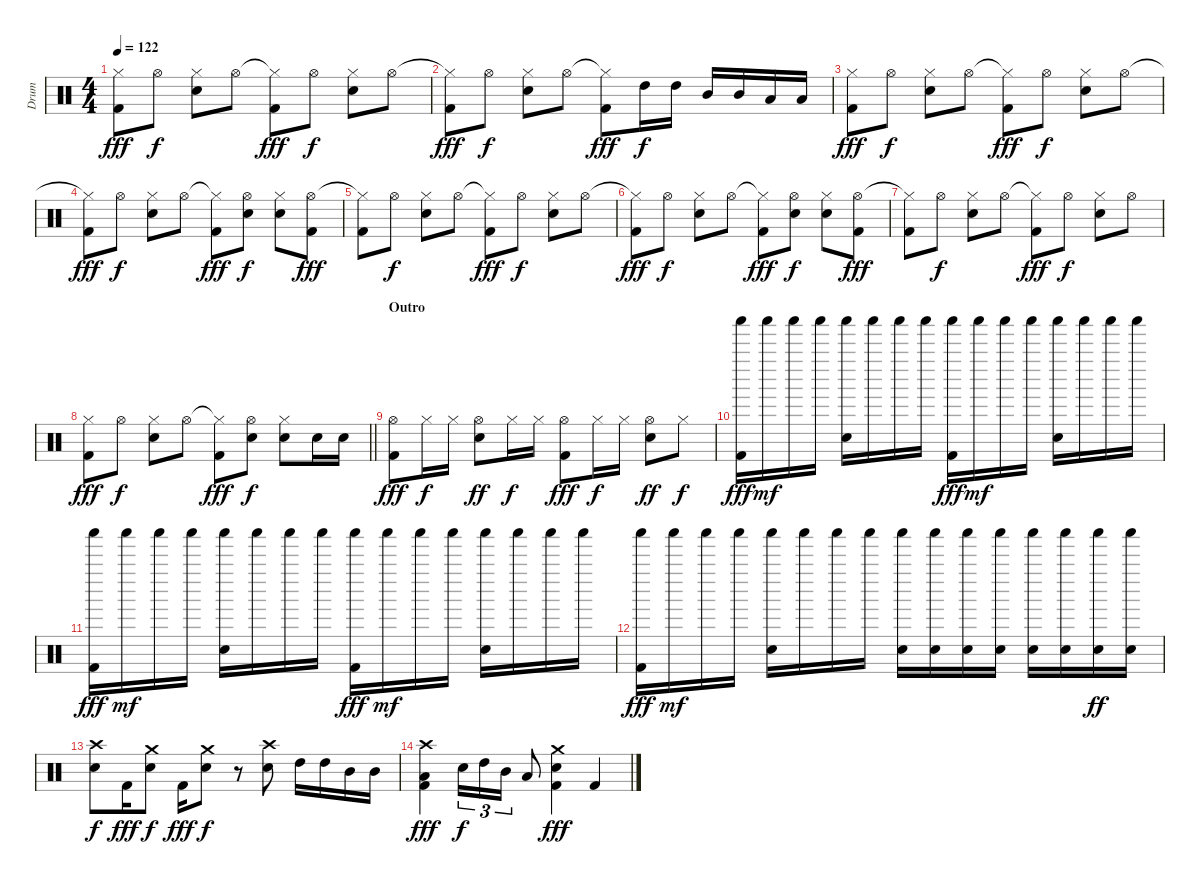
\track ("Drum" "Drum") {instrument percussion}
\staff {score}
\articulation defaults
\ts (4 4)
\tempo 122
\clef neutral
\ks c
("Hi-Hat (closed)"{t} "Kick (hit) 2").8{dy fff} "Hi-Hat (open)".8{dy f} ("Hi-Hat (closed)" "Electric Snare (hit)").8 "Hi-Hat (open)".8 ("Hi-Hat (closed)"{t} "Kick (hit) 2").8{dy fff} "Hi-Hat (open)".8{dy f} ("Hi-Hat (closed)" "Electric Snare (hit)").8 "Hi-Hat (open)".8 |
("Hi-Hat (closed)"{t} "Kick (hit) 2").8{dy fff} "Hi-Hat (open)".8{dy f} ("Hi-Hat (closed)" "Electric Snare (hit)").8 "Hi-Hat (open)".8 ("Hi-Hat (closed)"{t} "Kick (hit) 2").8{dy fff} "High Tom (hit)".16{dy f} "High Tom (hit)".16 "Mid Tom (hit)".16 "Mid Tom (hit)".16 "Low Tom (hit)".16 "Low Tom (hit)".16 |
("Hi-Hat (closed)" "Kick (hit) 2").8{dy fff} "Hi-Hat (open)".8{dy f} ("Hi-Hat (closed)" "Electric Snare (hit)").8 "Hi-Hat (open)".8 ("Hi-Hat (closed)"{t} "Kick (hit) 2").8{dy fff} "Hi-Hat (open)".8{dy f} ("Hi-Hat (closed)" "Electric Snare (hit)").8 "Hi-Hat (open)".8 |
("Hi-Hat (closed)"{t} "Kick (hit) 2").8{dy fff} "Hi-Hat (open)".8{dy f} ("Hi-Hat (closed)" "Electric Snare (hit)").8 "Hi-Hat (open)".8 ("Hi-Hat (closed)"{t} "Kick (hit) 2").8{dy fff} ("Hi-Hat (open)" "Hand Clap (hit)").8{dy f} ("Hi-Hat (closed)" "Hand Clap (hit)").8 ("Hi-Hat (open)" "Kick (hit) 2").8{dy fff} |
("Hi-Hat (closed)"{t} "Kick (hit) 2").8 "Hi-Hat (open)".8{dy f} ("Hi-Hat (closed)" "Electric Snare (hit)").8 "Hi-Hat (open)".8 ("Hi-Hat (closed)"{t} "Kick (hit) 2").8{dy fff} "Hi-Hat (open)".8{dy f} ("Hi-Hat (closed)" "Electric Snare (hit)").8 "Hi-Hat (open)".8 |
("Hi-Hat (closed)"{t} "Kick (hit) 2").8{dy fff} "Hi-Hat (open)".8{dy f} ("Hi-Hat (closed)" "Electric Snare (hit)").8 "Hi-Hat (open)".8 ("Hi-Hat (closed)"{t} "Kick (hit) 2").8{dy fff} ("Hi-Hat (open)" "Hand Clap (hit)").8{dy f} ("Hi-Hat (closed)" "Hand Clap (hit)").8 ("Hi-Hat (open)" "Kick (hit) 2").8{dy fff} |
("Hi-Hat (closed)"{t} "Kick (hit) 2").8 "Hi-Hat (open)".8{dy f} ("Hi-Hat (closed)" "Electric Snare (hit)").8 "Hi-Hat (open)".8 ("Hi-Hat (closed)"{t} "Kick (hit) 2").8{dy fff} "Hi-Hat (open)".8{dy f} ("Hi-Hat (closed)" "Electric Snare (hit)").8 "Hi-Hat (open)".8 |
\barLineRight lightlight
("Hi-Hat (closed)" "Kick (hit) 2").8{dy fff} "Hi-Hat (open)".8{dy f} ("Hi-Hat (closed)" "Electric Snare (hit)").8 "Hi-Hat (open)".8 ("Hi-Hat (closed)"{t} "Kick (hit) 2").8{dy fff} ("Hi-Hat (open)" "Hand Clap (hit)").8{dy f} ("Hi-Hat (closed)" "Hand Clap (hit)").8 "Electric Snare (hit)".16 "Electric Snare (hit)".16 |
\section ("" "Outro")
("Hi-Hat (open)" "Kick (hit) 2").8{dy fff} "Hi-Hat (closed)".16{dy f} "Hi-Hat (closed)".16 ("Hi-Hat (open)" "Electric Snare (hit)").8{dy ff} "Hi-Hat (closed)".16{dy f} "Hi-Hat (closed)".16 ("Hi-Hat (open)" "Kick (hit) 2").8{dy fff} "Hi-Hat (closed)".16{dy f} "Hi-Hat (closed)".16 ("Hi-Hat (open)" "Electric Snare (hit)").8{dy ff} "Hi-Hat (closed)".8{dy f} |
("Shaker (hit)" "Kick (hit) 2").16{dy fff} "Shaker (hit)".16{dy mf} "Shaker (hit)".16 "Shaker (hit)".16 ("Shaker (hit)" "Electric Snare (hit)").16 "Shaker (hit)".16 "Shaker (hit)".16 "Shaker (hit)".16 ("Shaker (hit)" "Kick (hit) 2").16{dy fff} "Shaker (hit)".16{dy mf} "Shaker (hit)".16 "Shaker (hit)".16 ("Shaker (hit)" "Electric Snare (hit)").16 "Shaker (hit)".16 "Shaker (hit)".16 "Shaker (hit)".16 |
("Shaker (hit)" "Kick (hit) 2").16{dy fff} "Shaker (hit)".16{dy mf} "Shaker (hit)".16 "Shaker (hit)".16 ("Shaker (hit)" "Electric Snare (hit)").16 "Shaker (hit)".16 "Shaker (hit)".16 "Shaker (hit)".16 ("Shaker (hit)" "Kick (hit) 2").16{dy fff} "Shaker (hit)".16{dy mf} "Shaker (hit)".16 "Shaker (hit)".16 ("Shaker (hit)" "Electric Snare (hit)").16 "Shaker (hit)".16 "Shaker (hit)".16 "Shaker (hit)".16 |
("Shaker (hit)" "Kick (hit) 2").16{dy fff} "Shaker (hit)".16{dy mf} "Shaker (hit)".16 "Shaker (hit)".16 ("Shaker (hit)" "Electric Snare (hit)").16 "Shaker (hit)".16 "Shaker (hit)".16 "Shaker (hit)".16 ("Shaker (hit)" "Electric Snare (hit)").16 ("Shaker (hit)" "Electric Snare (hit)").16 ("Shaker (hit)" "Electric Snare (hit)").16 ("Shaker (hit)" "Electric Snare (hit)").16 ("Shaker (hit)" "Electric Snare (hit)").16 ("Shaker (hit)" "Electric Snare (hit)").16 ("Shaker (hit)" "Electric Snare (hit)").16{dy ff} ("Shaker (hit)" "Electric Snare (hit)").16 |
("Crash high (hit)" "Electric Snare (hit)").8{dy f} "Kick (hit) 2".16{dy fff} ("Crash medium (hit)" "Electric Snare (hit)").8{dy f} "Kick (hit) 2".16{dy fff} ("Crash medium (hit)" "Electric Snare (hit)").8{dy f} r.8 ("Crash high (hit)" "Electric Snare (hit)").8 "High Tom (hit)".16 "High Tom (hit)".16 "Mid Tom (hit)".16 "Mid Tom (hit)".16 |
("Crash high (hit)" "Low Tom (hit)" "Kick (hit) 2").4{dy fff} "Electric Snare (hit)".16{tu (3 2) dy f} "High Tom (hit)".16{tu (3 2)} "Mid Tom (hit)".16{tu (3 2)} "Low Tom (hit)".8 ("Crash medium (hit)" "Electric Snare (hit)" "Kick (hit) 2").4{dy fff} "Kick (hit) 2".4
